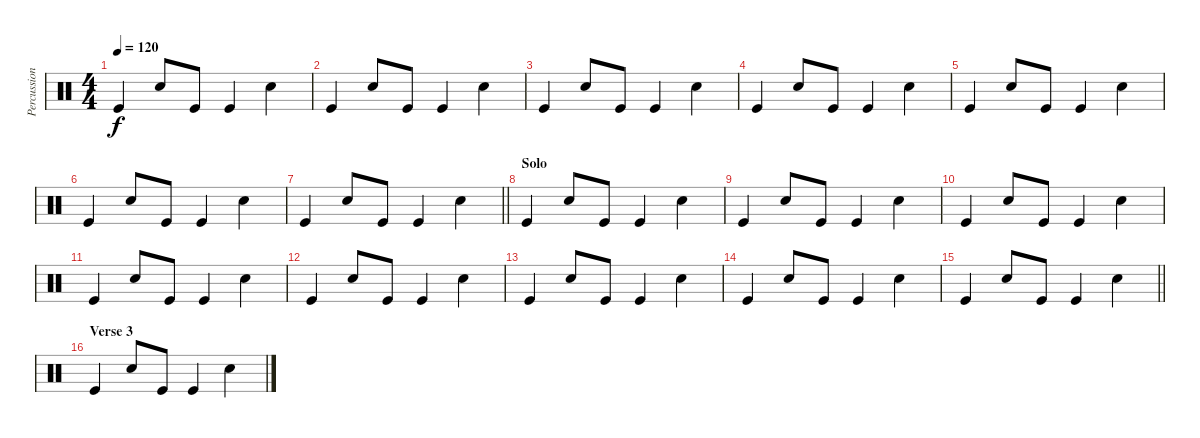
\track ("Percussion" "Percussion") {instrument percussion}
\staff {score}
\articulation defaults
\ts (4 4)
\tempo 120
\clef neutral
\ks c "Kick (hit)".4{dy f} "Electric Snare (hit)".8 "Kick (hit)".8 "Kick (hit)".4 "Electric Snare (hit)".4
|
"Kick (hit)".4 "Electric Snare (hit)".8 "Kick (hit)".8 "Kick (hit)".4 "Electric Snare (hit)".4 |
"Kick (hit)".4 "Electric Snare (hit)".8 "Kick (hit)".8 "Kick (hit)".4 "Electric Snare (hit)".4 |
"Kick (hit)".4 "Electric Snare (hit)".8 "Kick (hit)".8 "Kick (hit)".4 "Electric Snare (hit)".4 |
"Kick (hit)".4 "Electric Snare (hit)".8 "Kick (hit)".8 "Kick (hit)".4 "Electric Snare (hit)".4 |
"Kick (hit)".4 "Electric Snare (hit)".8 "Kick (hit)".8 "Kick (hit)".4 "Electric Snare (hit)".4 |
\barLineRight lightlight "Kick (hit)".4 "Electric Snare (hit)".8 "Kick (hit)".8 "Kick (hit)".4 "Electric Snare (hit)".4
|
\section ("" "Solo")
"Kick (hit)".4 "Electric Snare (hit)".8 "Kick (hit)".8 "Kick (hit)".4 "Electric Snare (hit)".4 |
"Kick (hit)".4 "Electric Snare (hit)".8 "Kick (hit)".8 "Kick (hit)".4 "Electric Snare (hit)".4 |
"Kick (hit)".4 "Electric Snare (hit)".8 "Kick (hit)".8 "Kick (hit)".4 "Electric Snare (hit)".4 |
"Kick (hit)".4 "Electric Snare (hit)".8 "Kick (hit)".8 "Kick (hit)".4 "Electric Snare (hit)".4 |
"Kick (hit)".4 "Electric Snare (hit)".8 "Kick (hit)".8 "Kick (hit)".4 "Electric Snare (hit)".4 |
"Kick (hit)".4 "Electric Snare (hit)".8 "Kick (hit)".8 "Kick (hit)".4 "Electric Snare (hit)".4 |
"Kick (hit)".4 "Electric Snare (hit)".8 "Kick (hit)".8 "Kick (hit)".4 "Electric Snare (hit)".4 |
\barLineRight lightlight "Kick (hit)".4 "Electric Snare (hit)".8 "Kick (hit)".8 "Kick (hit)".4 "Electric Snare (hit)".4
|
\section ("" "Verse 3")
"Kick (hit)".4 "Electric Snare (hit)".8 "Kick (hit)".8 "Kick (hit)".4 "Electric Snare (hit)".4
